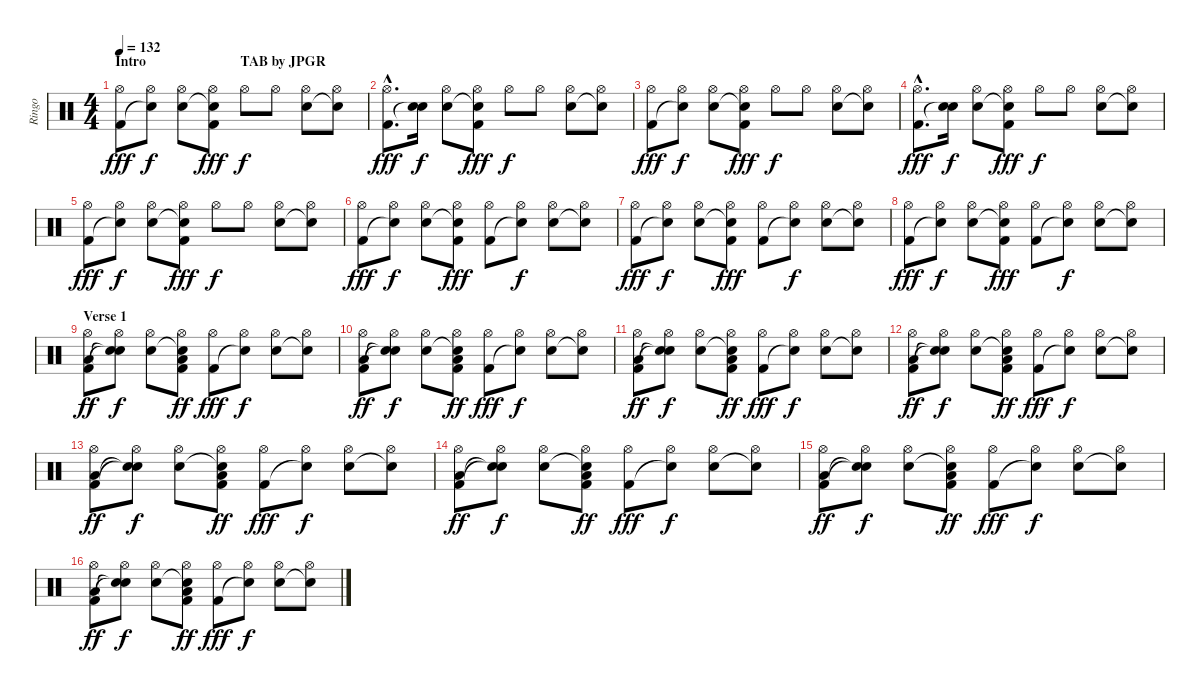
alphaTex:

\track ("Ringo" "Ringo") {instrument percussion}
\staff {score}
\articulation defaults
\ts (4 4)
\section ("" "Intro                           TAB by JPGR")
\tempo 132
\clef neutral
\ks c
("Hi-Hat (open)" "Kick (hit) 2").8{dy fff} ("Hi-Hat (open)" "Snare (hit)"{t}).8{dy f} ("Hi-Hat (open)" "Snare (hit) 2").8 ("Hi-Hat (open)" "Snare (hit)"{t} "Kick (hit) 2").8{dy fff} "Hi-Hat (open)".8{dy f} "Hi-Hat (open)".8 ("Hi-Hat (open)" "Snare (hit) 2").8 ("Hi-Hat (open)" "Snare (hit)"{t}).8 |
("Hi-Hat (open)"{hac} "Kick (hit) 2"{hac}).8{d dy fff} ("Snare (hit) 2" "Snare (hit)"{t}).16{dy f} ("Hi-Hat (open)" "Snare (hit) 2").8 ("Hi-Hat (open)" "Snare (hit)"{t} "Kick (hit) 2").8{dy fff} "Hi-Hat (open)".8{dy f} "Hi-Hat (open)".8 ("Hi-Hat (open)" "Snare (hit) 2").8 ("Hi-Hat (open)" "Snare (hit)"{t}).8 |
("Hi-Hat (open)" "Kick (hit) 2").8{dy fff} ("Hi-Hat (open)" "Snare (hit)"{t}).8{dy f} ("Hi-Hat (open)" "Snare (hit) 2").8 ("Hi-Hat (open)" "Snare (hit)"{t} "Kick (hit) 2").8{dy fff} "Hi-Hat (open)".8{dy f} "Hi-Hat (open)".8 ("Hi-Hat (open)" "Snare (hit) 2").8 ("Hi-Hat (open)" "Snare (hit)"{t}).8 |
("Hi-Hat (open)"{hac} "Kick (hit) 2"{hac}).8{d dy fff} ("Snare (hit) 2" "Snare (hit)"{t}).16{dy f} ("Hi-Hat (open)" "Snare (hit) 2").8 ("Hi-Hat (open)" "Snare (hit)"{t} "Kick (hit) 2").8{dy fff} "Hi-Hat (open)".8{dy f} "Hi-Hat (open)".8 ("Hi-Hat (open)" "Snare (hit) 2").8 ("Hi-Hat (open)" "Snare (hit)"{t}).8 |
("Hi-Hat (open)" "Kick (hit) 2").8{dy fff} ("Hi-Hat (open)" "Snare (hit)"{t}).8{dy f} ("Hi-Hat (open)" "Snare (hit) 2").8 ("Hi-Hat (open)" "Snare (hit)"{t} "Kick (hit) 2").8{dy fff} "Hi-Hat (open)".8{dy f} "Hi-Hat (open)".8 ("Hi-Hat (open)" "Snare (hit) 2").8 ("Hi-Hat (open)" "Snare (hit)"{t}).8 |
("Hi-Hat (open)" "Kick (hit) 2").8{dy fff} ("Hi-Hat (open)" "Snare (hit)"{t}).8{dy f} ("Hi-Hat (open)" "Snare (hit) 2").8 ("Hi-Hat (open)" "Snare (hit)"{t} "Kick (hit) 2").8{dy fff} ("Hi-Hat (open)" "Kick (hit) 2").8 ("Hi-Hat (open)" "Snare (hit)"{t}).8{dy f} ("Hi-Hat (open)" "Snare (hit) 2").8 ("Hi-Hat (open)" "Snare (hit)"{t}).8 |
("Hi-Hat (open)" "Kick (hit) 2").8{dy fff} ("Hi-Hat (open)" "Snare (hit)"{t}).8{dy f} ("Hi-Hat (open)" "Snare (hit) 2").8 ("Hi-Hat (open)" "Snare (hit)"{t} "Kick (hit) 2").8{dy fff} ("Hi-Hat (open)" "Kick (hit) 2").8 ("Hi-Hat (open)" "Snare (hit)"{t}).8{dy f} ("Hi-Hat (open)" "Snare (hit) 2").8 ("Hi-Hat (open)" "Snare (hit)"{t}).8 |
("Hi-Hat (open)" "Kick (hit) 2").8{dy fff} ("Hi-Hat (open)" "Snare (hit)"{t}).8{dy f} ("Hi-Hat (open)" "Snare (hit) 2").8 ("Hi-Hat (open)" "Snare (hit)"{t} "Kick (hit) 2").8{dy fff} ("Hi-Hat (open)" "Kick (hit) 2").8 ("Hi-Hat (open)" "Snare (hit)"{t}).8{dy f} ("Hi-Hat (open)" "Snare (hit) 2").8 ("Hi-Hat (open)" "Snare (hit)"{t}).8 |
\section ("" "Verse 1")
("Hi-Hat (open)" "Kick (hit) 2" "Low Floor Tom (hit)").8{dy ff} ("Hi-Hat (open)" "Snare (hit)"{t} "Snare (hit)"{t}).8{dy f} ("Hi-Hat (open)" "Snare (hit) 2").8 ("Hi-Hat (open)" "Snare (hit)"{t} "Kick (hit) 2" "Low Floor Tom (hit)").8{dy ff} ("Hi-Hat (open)" "Kick (hit) 2").8{dy fff} ("Hi-Hat (open)" "Snare (hit)"{t}).8{dy f} ("Hi-Hat (open)" "Snare (hit) 2").8 ("Hi-Hat (open)" "Snare (hit)"{t}).8 |
("Hi-Hat (open)" "Kick (hit) 2" "Low Floor Tom (hit)").8{dy ff} ("Hi-Hat (open)" "Snare (hit)"{t} "Snare (hit)"{t}).8{dy f} ("Hi-Hat (open)" "Snare (hit) 2").8 ("Hi-Hat (open)" "Snare (hit)"{t} "Kick (hit) 2" "Low Floor Tom (hit)").8{dy ff} ("Hi-Hat (open)" "Kick (hit) 2").8{dy fff} ("Hi-Hat (open)" "Snare (hit)"{t}).8{dy f} ("Hi-Hat (open)" "Snare (hit) 2").8 ("Hi-Hat (open)" "Snare (hit)"{t}).8 |
("Hi-Hat (open)" "Kick (hit) 2" "Low Floor Tom (hit)").8{dy ff} ("Hi-Hat (open)" "Snare (hit)"{t} "Snare (hit)"{t}).8{dy f} ("Hi-Hat (open)" "Snare (hit) 2").8 ("Hi-Hat (open)" "Snare (hit)"{t} "Kick (hit) 2" "Low Floor Tom (hit)").8{dy ff} ("Hi-Hat (open)" "Kick (hit) 2").8{dy fff} ("Hi-Hat (open)" "Snare (hit)"{t}).8{dy f} ("Hi-Hat (open)" "Snare (hit) 2").8 ("Hi-Hat (open)" "Snare (hit)"{t}).8 |
("Hi-Hat (open)" "Kick (hit) 2" "Low Floor Tom (hit)").8{dy ff} ("Hi-Hat (open)" "Snare (hit)"{t} "Snare (hit)"{t}).8{dy f} ("Hi-Hat (open)" "Snare (hit) 2").8 ("Hi-Hat (open)" "Snare (hit)"{t} "Kick (hit) 2" "Low Floor Tom (hit)").8{dy ff} ("Hi-Hat (open)" "Kick (hit) 2").8{dy fff} ("Hi-Hat (open)" "Snare (hit)"{t}).8{dy f} ("Hi-Hat (open)" "Snare (hit) 2").8 ("Hi-Hat (open)" "Snare (hit)"{t}).8 |
("Hi-Hat (open)" "Kick (hit) 2" "Low Floor Tom (hit)").8{dy ff} ("Hi-Hat (open)" "Snare (hit)"{t} "Snare (hit)"{t}).8{dy f} ("Hi-Hat (open)" "Snare (hit) 2").8 ("Hi-Hat (open)" "Snare (hit)"{t} "Kick (hit) 2" "Low Floor Tom (hit)").8{dy ff} ("Hi-Hat (open)" "Kick (hit) 2").8{dy fff} ("Hi-Hat (open)" "Snare (hit)"{t}).8{dy f} ("Hi-Hat (open)" "Snare (hit) 2").8 ("Hi-Hat (open)" "Snare (hit)"{t}).8 |
("Hi-Hat (open)" "Kick (hit) 2" "Low Floor Tom (hit)").8{dy ff} ("Hi-Hat (open)" "Snare (hit)"{t} "Snare (hit)"{t}).8{dy f} ("Hi-Hat (open)" "Snare (hit) 2").8 ("Hi-Hat (open)" "Snare (hit)"{t} "Kick (hit) 2" "Low Floor Tom (hit)").8{dy ff} ("Hi-Hat (open)" "Kick (hit) 2").8{dy fff} ("Hi-Hat (open)" "Snare (hit)"{t}).8{dy f} ("Hi-Hat (open)" "Snare (hit) 2").8 ("Hi-Hat (open)" "Snare (hit)"{t}).8 |
("Hi-Hat (open)" "Kick (hit) 2" "Low Floor Tom (hit)").8{dy ff} ("Hi-Hat (open)" "Snare (hit)"{t} "Snare (hit)"{t}).8{dy f} ("Hi-Hat (open)" "Snare (hit) 2").8 ("Hi-Hat (open)" "Snare (hit)"{t} "Kick (hit) 2" "Low Floor Tom (hit)").8{dy ff} ("Hi-Hat (open)" "Kick (hit) 2").8{dy fff} ("Hi-Hat (open)" "Snare (hit)"{t}).8{dy f} ("Hi-Hat (open)" "Snare (hit) 2").8 ("Hi-Hat (open)" "Snare (hit)"{t}).8 |
("Hi-Hat (open)" "Kick (hit) 2" "Low Floor Tom (hit)").8{dy ff} ("Hi-Hat (open)" "Snare (hit)"{t} "Snare (hit)"{t}).8{dy f} ("Hi-Hat (open)" "Snare (hit) 2").8 ("Hi-Hat (open)" "Snare (hit)"{t} "Kick (hit) 2" "Low Floor Tom (hit)").8{dy ff} ("Hi-Hat (open)" "Kick (hit) 2").8{dy fff} ("Hi-Hat (open)" "Snare (hit)"{t}).8{dy f} ("Hi-Hat (open)" "Snare (hit) 2").8 ("Hi-Hat (open)" "Snare (hit)"{t}).8
